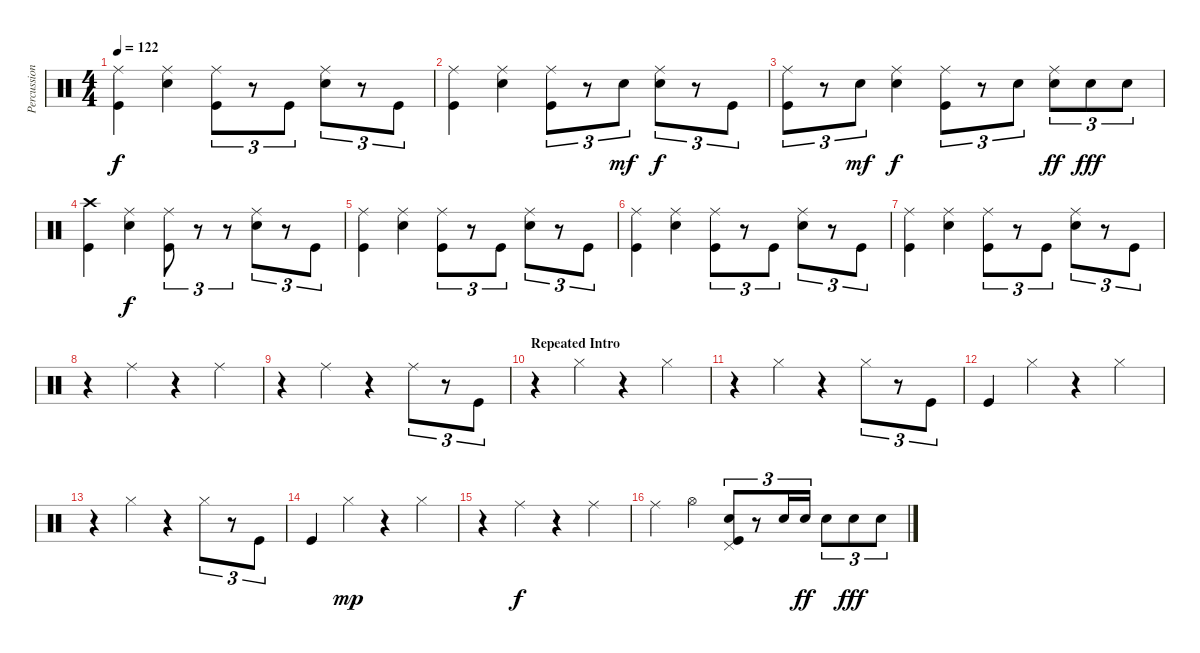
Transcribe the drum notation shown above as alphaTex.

\track ("Percussion" "Percussion") {instrument percussion}
\staff {score}
\articulation defaults
\ts (4 4)
\tempo 122
\clef neutral
\ks c
("Ride (middle)" "Kick (hit)").4{dy f} ("Ride (middle)" "Electric Snare (hit)").4 ("Ride (middle)" "Kick (hit)").8{tu (3 2)} r.8{tu (3 2)} "Kick (hit)".8{tu (3 2)} ("Ride (middle)" "Electric Snare (hit)").8{tu (3 2)} r.8{tu (3 2)} "Kick (hit)".8{tu (3 2)} |
("Ride (middle)" "Kick (hit)").4 ("Ride (middle)" "Electric Snare (hit)").4 ("Ride (middle)" "Kick (hit)").8{tu (3 2)} r.8{tu (3 2)} "Electric Snare (hit)".8{tu (3 2) dy mf} ("Ride (middle)" "Electric Snare (hit)").8{tu (3 2) dy f} r.8{tu (3 2)} "Kick (hit)".8{tu (3 2)} |
("Ride (middle)" "Kick (hit)").8{tu (3 2)} r.8{tu (3 2)} "Electric Snare (hit)".8{tu (3 2) dy mf} ("Ride (middle)" "Electric Snare (hit)").4{dy f} ("Ride (middle)" "Kick (hit)").8{tu (3 2)} r.8{tu (3 2)} "Electric Snare (hit)".8{tu (3 2)} ("Ride (middle)" "Electric Snare (hit)").8{tu (3 2) dy ff} "Electric Snare (hit)".8{tu (3 2) dy fff} "Electric Snare (hit)".8{tu (3 2)} |
("Crash high (hit)" "Kick (hit)").4 ("Ride (middle)" "Electric Snare (hit)").4{dy f} ("Ride (middle)" "Kick (hit)").8{tu (3 2)} r.8{tu (3 2)} r.8{tu (3 2)} ("Ride (middle)" "Electric Snare (hit)").8{tu (3 2)} r.8{tu (3 2)} "Kick (hit)".8{tu (3 2)} |
("Ride (middle)" "Kick (hit)").4 ("Ride (middle)" "Electric Snare (hit)").4 ("Ride (middle)" "Kick (hit)").8{tu (3 2)} r.8{tu (3 2)} "Kick (hit)".8{tu (3 2)} ("Ride (middle)" "Electric Snare (hit)").8{tu (3 2)} r.8{tu (3 2)} "Kick (hit)".8{tu (3 2)} |
("Ride (middle)" "Kick (hit)").4 ("Ride (middle)" "Electric Snare (hit)").4 ("Ride (middle)" "Kick (hit)").8{tu (3 2)} r.8{tu (3 2)} "Kick (hit)".8{tu (3 2)} ("Ride (middle)" "Electric Snare (hit)").8{tu (3 2)} r.8{tu (3 2)} "Kick (hit)".8{tu (3 2)} |
("Ride (middle)" "Kick (hit)").4 ("Ride (middle)" "Electric Snare (hit)").4 ("Ride (middle)" "Kick (hit)").8{tu (3 2)} r.8{tu (3 2)} "Kick (hit)".8{tu (3 2)} ("Ride (middle)" "Electric Snare (hit)").8{tu (3 2)} r.8{tu (3 2)} "Kick (hit)".8{tu (3 2)} |
r.4 "Ride (middle)".4{volume 10} r.4 "Ride (middle)".4 |
r.4 "Ride (middle)".4 r.4 "Ride (middle)".8{tu (3 2)} r.8{tu (3 2)} "Kick (hit)".8{tu (3 2)} |
\section ("" "Repeated Intro")
r.4 "Hi-Hat (closed)".4 r.4 "Hi-Hat (closed)".4 |
r.4 "Hi-Hat (closed)".4 r.4 "Hi-Hat (closed)".8{tu (3 2)} r.8{tu (3 2)} "Kick (hit)".8{tu (3 2)} |
"Kick (hit)".4 "Hi-Hat (closed)".4 r.4 "Hi-Hat (closed)".4 |
r.4 "Hi-Hat (closed)".4 r.4 "Hi-Hat (closed)".8{tu (3 2)} r.8{tu (3 2)} "Kick (hit)".8{tu (3 2)} |
"Kick (hit)".4 "Hi-Hat (closed)".4{dy mp} r.4 "Hi-Hat (closed)".4 |
r.4 "Ride (middle)".4{dy f} r.4 "Ride (middle)".4 |
"Ride (middle)".4 "Hi-Hat (open)".4 ("Pedal Hi-Hat (hit)" "Electric Snare (hit)" "Kick (hit)").8{tu (3 2) volume 14} r.8{tu (3 2)} "Electric Snare (hit)".16{tu (3 2)} "Electric Snare (hit)".16{tu (3 2) dy ff} "Electric Snare (hit)".8{tu (3 2)} "Electric Snare (hit)".8{tu (3 2) dy fff} "Electric Snare (hit)".8{tu (3 2)}
